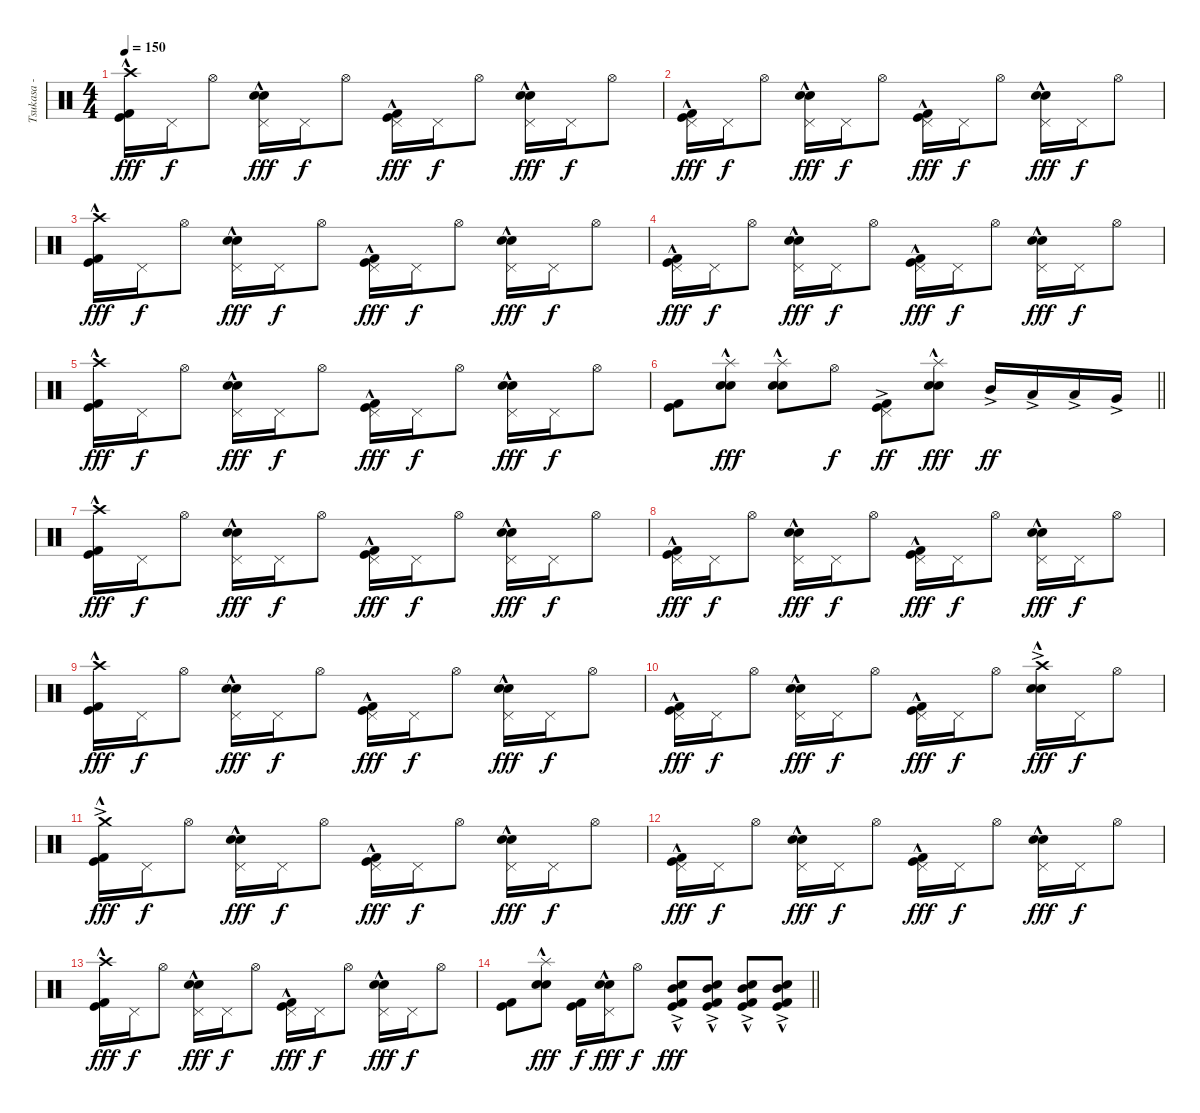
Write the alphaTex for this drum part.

\track ("Tsukasa - Drums" "Tsukasa - ") {instrument percussion}
\staff {score}
\articulation defaults
\ts (4 4)
\tempo 150
\clef neutral
\ks c
("Crash high (hit)" "Kick (hit)"{hac} "Kick (hit) 2"{hac}).16{dy fff} "Pedal Hi-Hat (hit)".16{dy f} "Hi-Hat (open)".8 ("Pedal Hi-Hat (hit)" "Electric Snare (hit)"{hac} "Snare (hit) 2").16{dy fff} "Pedal Hi-Hat (hit)".16{dy f} "Hi-Hat (open)".8 ("Pedal Hi-Hat (hit)" "Kick (hit)"{hac} "Kick (hit) 2"{hac}).16{dy fff} "Pedal Hi-Hat (hit)".16{dy f} "Hi-Hat (open)".8 ("Pedal Hi-Hat (hit)" "Electric Snare (hit)"{hac} "Snare (hit) 2").16{dy fff} "Pedal Hi-Hat (hit)".16{dy f} "Hi-Hat (open)".8 |
("Pedal Hi-Hat (hit)" "Kick (hit)"{hac} "Kick (hit) 2"{hac}).16{dy fff} "Pedal Hi-Hat (hit)".16{dy f} "Hi-Hat (open)".8 ("Pedal Hi-Hat (hit)" "Electric Snare (hit)"{hac} "Snare (hit) 2").16{dy fff} "Pedal Hi-Hat (hit)".16{dy f} "Hi-Hat (open)".8 ("Pedal Hi-Hat (hit)" "Kick (hit)"{hac} "Kick (hit) 2"{hac}).16{dy fff} "Pedal Hi-Hat (hit)".16{dy f} "Hi-Hat (open)".8 ("Pedal Hi-Hat (hit)" "Electric Snare (hit)"{hac} "Snare (hit) 2").16{dy fff} "Pedal Hi-Hat (hit)".16{dy f} "Hi-Hat (open)".8 |
("Crash high (hit)" "Kick (hit)"{hac} "Kick (hit) 2"{hac}).16{dy fff} "Pedal Hi-Hat (hit)".16{dy f} "Hi-Hat (open)".8 ("Pedal Hi-Hat (hit)" "Electric Snare (hit)"{hac} "Snare (hit) 2").16{dy fff} "Pedal Hi-Hat (hit)".16{dy f} "Hi-Hat (open)".8 ("Pedal Hi-Hat (hit)" "Kick (hit)"{hac} "Kick (hit) 2"{hac}).16{dy fff} "Pedal Hi-Hat (hit)".16{dy f} "Hi-Hat (open)".8 ("Pedal Hi-Hat (hit)" "Electric Snare (hit)"{hac} "Snare (hit) 2").16{dy fff} "Pedal Hi-Hat (hit)".16{dy f} "Hi-Hat (open)".8 |
("Pedal Hi-Hat (hit)" "Kick (hit)"{hac} "Kick (hit) 2"{hac}).16{dy fff} "Pedal Hi-Hat (hit)".16{dy f} "Hi-Hat (open)".8 ("Pedal Hi-Hat (hit)" "Electric Snare (hit)"{hac} "Snare (hit) 2").16{dy fff} "Pedal Hi-Hat (hit)".16{dy f} "Hi-Hat (open)".8 ("Pedal Hi-Hat (hit)" "Kick (hit)"{hac} "Kick (hit) 2"{hac}).16{dy fff} "Pedal Hi-Hat (hit)".16{dy f} "Hi-Hat (open)".8 ("Pedal Hi-Hat (hit)" "Electric Snare (hit)"{hac} "Snare (hit) 2").16{dy fff} "Pedal Hi-Hat (hit)".16{dy f} "Hi-Hat (open)".8 |
("Crash high (hit)" "Kick (hit)"{hac} "Kick (hit) 2"{hac}).16{dy fff} "Pedal Hi-Hat (hit)".16{dy f} "Hi-Hat (open)".8 ("Pedal Hi-Hat (hit)" "Electric Snare (hit)"{hac} "Snare (hit) 2").16{dy fff} "Pedal Hi-Hat (hit)".16{dy f} "Hi-Hat (open)".8 ("Pedal Hi-Hat (hit)" "Kick (hit)"{hac} "Kick (hit) 2"{hac}).16{dy fff} "Pedal Hi-Hat (hit)".16{dy f} "Hi-Hat (open)".8 ("Pedal Hi-Hat (hit)" "Electric Snare (hit)"{hac} "Snare (hit) 2").16{dy fff} "Pedal Hi-Hat (hit)".16{dy f} "Hi-Hat (open)".8 |
\barLineRight lightlight
("Kick (hit)" "Kick (hit) 2").8 ("Splash (hit)"{hac} "Electric Snare (hit)"{hac} "Snare (hit) 2").8{dy fff} ("Splash (hit)"{hac} "Electric Snare (hit)"{hac} "Snare (hit) 2").8 "Hi-Hat (open)".8{dy f} ("Pedal Hi-Hat (hit)" "Kick (hit)"{ac} "Kick (hit) 2"{ac}).8{dy ff} ("Splash (hit)"{hac} "Electric Snare (hit)"{hac} "Snare (hit) 2").8{dy fff} "Mid Tom (hit)"{ac}.16{dy ff} "Low Tom (hit)"{ac}.16 "Low Tom (hit)"{ac}.16 "Very Low Tom (hit)"{ac}.16 |
\section ("" "")
("Crash high (hit)" "Kick (hit)"{hac} "Kick (hit) 2"{hac}).16{dy fff} "Pedal Hi-Hat (hit)".16{dy f} "Hi-Hat (open)".8 ("Pedal Hi-Hat (hit)" "Electric Snare (hit)"{hac} "Snare (hit) 2").16{dy fff} "Pedal Hi-Hat (hit)".16{dy f} "Hi-Hat (open)".8 ("Pedal Hi-Hat (hit)" "Kick (hit)"{hac} "Kick (hit) 2"{hac}).16{dy fff} "Pedal Hi-Hat (hit)".16{dy f} "Hi-Hat (open)".8 ("Pedal Hi-Hat (hit)" "Electric Snare (hit)"{hac} "Snare (hit) 2").16{dy fff} "Pedal Hi-Hat (hit)".16{dy f} "Hi-Hat (open)".8 |
("Pedal Hi-Hat (hit)" "Kick (hit)"{hac} "Kick (hit) 2"{hac}).16{dy fff} "Pedal Hi-Hat (hit)".16{dy f} "Hi-Hat (open)".8 ("Pedal Hi-Hat (hit)" "Electric Snare (hit)"{hac} "Snare (hit) 2").16{dy fff} "Pedal Hi-Hat (hit)".16{dy f} "Hi-Hat (open)".8 ("Pedal Hi-Hat (hit)" "Kick (hit)"{hac} "Kick (hit) 2"{hac}).16{dy fff} "Pedal Hi-Hat (hit)".16{dy f} "Hi-Hat (open)".8 ("Pedal Hi-Hat (hit)" "Electric Snare (hit)"{hac} "Snare (hit) 2").16{dy fff} "Pedal Hi-Hat (hit)".16{dy f} "Hi-Hat (open)".8 |
("Crash high (hit)" "Kick (hit)"{hac} "Kick (hit) 2"{hac}).16{dy fff} "Pedal Hi-Hat (hit)".16{dy f} "Hi-Hat (open)".8 ("Pedal Hi-Hat (hit)" "Electric Snare (hit)"{hac} "Snare (hit) 2").16{dy fff} "Pedal Hi-Hat (hit)".16{dy f} "Hi-Hat (open)".8 ("Pedal Hi-Hat (hit)" "Kick (hit)"{hac} "Kick (hit) 2"{hac}).16{dy fff} "Pedal Hi-Hat (hit)".16{dy f} "Hi-Hat (open)".8 ("Pedal Hi-Hat (hit)" "Electric Snare (hit)"{hac} "Snare (hit) 2").16{dy fff} "Pedal Hi-Hat (hit)".16{dy f} "Hi-Hat (open)".8 |
("Pedal Hi-Hat (hit)" "Kick (hit)"{hac} "Kick (hit) 2"{hac}).16{dy fff} "Pedal Hi-Hat (hit)".16{dy f} "Hi-Hat (open)".8 ("Pedal Hi-Hat (hit)" "Electric Snare (hit)"{hac} "Snare (hit) 2").16{dy fff} "Pedal Hi-Hat (hit)".16{dy f} "Hi-Hat (open)".8 ("Pedal Hi-Hat (hit)" "Kick (hit)"{hac} "Kick (hit) 2"{hac}).16{dy fff} "Pedal Hi-Hat (hit)".16{dy f} "Hi-Hat (open)".8 ("Crash high (hit)"{ac} "Electric Snare (hit)"{hac} "Snare (hit) 2").16{dy fff} "Pedal Hi-Hat (hit)".16{dy f} "Hi-Hat (open)".8 |
("Crash medium (hit)"{ac} "Kick (hit)"{hac} "Kick (hit) 2"{hac}).16{dy fff} "Pedal Hi-Hat (hit)".16{dy f} "Hi-Hat (open)".8 ("Pedal Hi-Hat (hit)" "Electric Snare (hit)"{hac} "Snare (hit) 2").16{dy fff} "Pedal Hi-Hat (hit)".16{dy f} "Hi-Hat (open)".8 ("Pedal Hi-Hat (hit)" "Kick (hit)"{hac} "Kick (hit) 2"{hac}).16{dy fff} "Pedal Hi-Hat (hit)".16{dy f} "Hi-Hat (open)".8 ("Pedal Hi-Hat (hit)" "Electric Snare (hit)"{hac} "Snare (hit) 2").16{dy fff} "Pedal Hi-Hat (hit)".16{dy f} "Hi-Hat (open)".8 |
("Pedal Hi-Hat (hit)" "Kick (hit)"{hac} "Kick (hit) 2"{hac}).16{dy fff} "Pedal Hi-Hat (hit)".16{dy f} "Hi-Hat (open)".8 ("Pedal Hi-Hat (hit)" "Electric Snare (hit)"{hac} "Snare (hit) 2").16{dy fff} "Pedal Hi-Hat (hit)".16{dy f} "Hi-Hat (open)".8 ("Pedal Hi-Hat (hit)" "Kick (hit)"{hac} "Kick (hit) 2"{hac}).16{dy fff} "Pedal Hi-Hat (hit)".16{dy f} "Hi-Hat (open)".8 ("Pedal Hi-Hat (hit)" "Electric Snare (hit)"{hac} "Snare (hit) 2").16{dy fff} "Pedal Hi-Hat (hit)".16{dy f} "Hi-Hat (open)".8 |
("Crash high (hit)" "Kick (hit)"{hac} "Kick (hit) 2"{hac}).16{dy fff} "Pedal Hi-Hat (hit)".16{dy f} "Hi-Hat (open)".8 ("Pedal Hi-Hat (hit)" "Electric Snare (hit)"{hac} "Snare (hit) 2").16{dy fff} "Pedal Hi-Hat (hit)".16{dy f} "Hi-Hat (open)".8 ("Pedal Hi-Hat (hit)" "Kick (hit)"{hac} "Kick (hit) 2"{hac}).16{dy fff} "Pedal Hi-Hat (hit)".16{dy f} "Hi-Hat (open)".8 ("Pedal Hi-Hat (hit)" "Electric Snare (hit)"{hac} "Snare (hit) 2").16{dy fff} "Pedal Hi-Hat (hit)".16{dy f} "Hi-Hat (open)".8 |
\barLineRight lightlight
("Kick (hit)" "Kick (hit) 2").8 ("Splash (hit)"{hac} "Electric Snare (hit)"{hac} "Snare (hit) 2").8{dy fff} ("Kick (hit)" "Kick (hit) 2").16{dy f} ("Pedal Hi-Hat (hit)"{hac} "Electric Snare (hit)"{hac} "Snare (hit) 2").16{dy fff} "Hi-Hat (open)".8{dy f} ("Electric Snare (hit)" "Mid Tom (hit)" "Kick (hit)"{ac} "Kick (hit) 2"{hac}).8{dy fff} ("Electric Snare (hit)" "Mid Tom (hit)" "Kick (hit)"{ac} "Kick (hit) 2"{hac}).8 ("Electric Snare (hit)" "Mid Tom (hit)" "Kick (hit)"{ac} "Kick (hit) 2"{hac}).8 ("Electric Snare (hit)" "Mid Tom (hit)" "Kick (hit)"{ac} "Kick (hit) 2"{hac}).8
